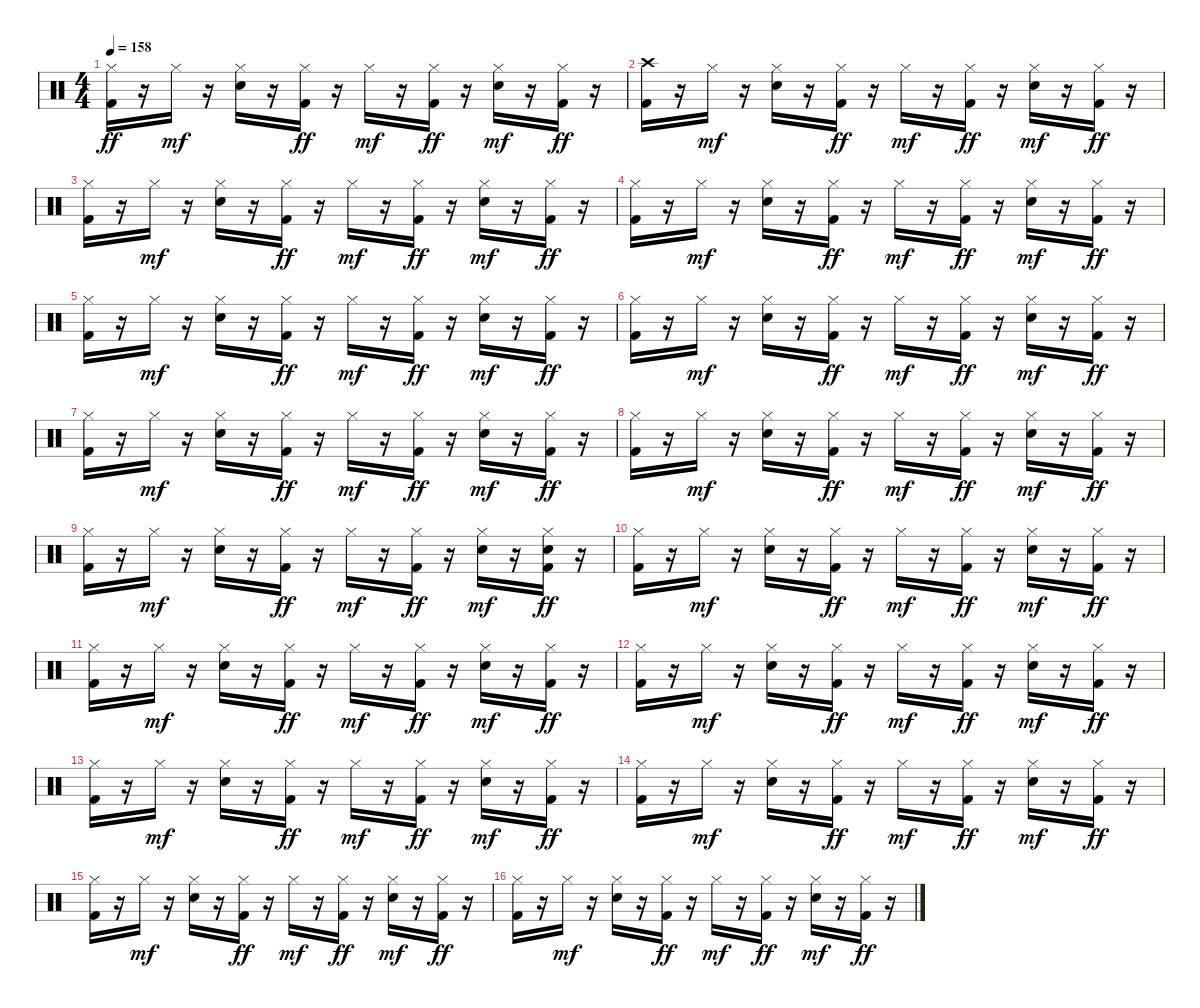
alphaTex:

\track ("   " "   ") {instrument percussion}
\staff
\articulation defaults
\ts (4 4)
\tempo 158
\clef neutral
\ks c
("Hi-Hat (closed)" "Kick (hit) 2").16{dy ff} r.16 "Hi-Hat (closed)".16{dy mf} r.16 ("Hi-Hat (closed)" "Electric Snare (hit)").16 r.16 ("Hi-Hat (closed)" "Kick (hit) 2").16{dy ff} r.16 "Hi-Hat (closed)".16{dy mf} r.16 ("Hi-Hat (closed)" "Kick (hit) 2").16{dy ff} r.16 ("Hi-Hat (closed)" "Electric Snare (hit)").16{dy mf} r.16 ("Hi-Hat (closed)" "Kick (hit) 2").16{dy ff} r.16 |
("Crash high (hit)" "Kick (hit) 2").16 r.16 "Hi-Hat (closed)".16{dy mf} r.16 ("Hi-Hat (closed)" "Electric Snare (hit)").16 r.16 ("Hi-Hat (closed)" "Kick (hit) 2").16{dy ff} r.16 "Hi-Hat (closed)".16{dy mf} r.16 ("Hi-Hat (closed)" "Kick (hit) 2").16{dy ff} r.16 ("Hi-Hat (closed)" "Electric Snare (hit)").16{dy mf} r.16 ("Hi-Hat (closed)" "Kick (hit) 2").16{dy ff} r.16 |
("Hi-Hat (closed)" "Kick (hit) 2").16 r.16 "Hi-Hat (closed)".16{dy mf} r.16 ("Hi-Hat (closed)" "Electric Snare (hit)").16 r.16 ("Hi-Hat (closed)" "Kick (hit) 2").16{dy ff} r.16 "Hi-Hat (closed)".16{dy mf} r.16 ("Hi-Hat (closed)" "Kick (hit) 2").16{dy ff} r.16 ("Hi-Hat (closed)" "Electric Snare (hit)").16{dy mf} r.16 ("Hi-Hat (closed)" "Kick (hit) 2").16{dy ff} r.16 |
("Hi-Hat (closed)" "Kick (hit) 2").16 r.16 "Hi-Hat (closed)".16{dy mf} r.16 ("Hi-Hat (closed)" "Electric Snare (hit)").16 r.16 ("Hi-Hat (closed)" "Kick (hit) 2").16{dy ff} r.16 "Hi-Hat (closed)".16{dy mf} r.16 ("Hi-Hat (closed)" "Kick (hit) 2").16{dy ff} r.16 ("Hi-Hat (closed)" "Electric Snare (hit)").16{dy mf} r.16 ("Hi-Hat (closed)" "Kick (hit) 2").16{dy ff} r.16 |
("Hi-Hat (closed)" "Kick (hit) 2").16 r.16 "Hi-Hat (closed)".16{dy mf} r.16 ("Hi-Hat (closed)" "Electric Snare (hit)").16 r.16 ("Hi-Hat (closed)" "Kick (hit) 2").16{dy ff} r.16 "Hi-Hat (closed)".16{dy mf} r.16 ("Hi-Hat (closed)" "Kick (hit) 2").16{dy ff} r.16 ("Hi-Hat (closed)" "Electric Snare (hit)").16{dy mf} r.16 ("Hi-Hat (closed)" "Kick (hit) 2").16{dy ff} r.16 |
("Hi-Hat (closed)" "Kick (hit) 2").16 r.16 "Hi-Hat (closed)".16{dy mf} r.16 ("Hi-Hat (closed)" "Electric Snare (hit)").16 r.16 ("Hi-Hat (closed)" "Kick (hit) 2").16{dy ff} r.16 "Hi-Hat (closed)".16{dy mf} r.16 ("Hi-Hat (closed)" "Kick (hit) 2").16{dy ff} r.16 ("Hi-Hat (closed)" "Electric Snare (hit)").16{dy mf} r.16 ("Hi-Hat (closed)" "Kick (hit) 2").16{dy ff} r.16 |
("Hi-Hat (closed)" "Kick (hit) 2").16 r.16 "Hi-Hat (closed)".16{dy mf} r.16 ("Hi-Hat (closed)" "Electric Snare (hit)").16 r.16 ("Hi-Hat (closed)" "Kick (hit) 2").16{dy ff} r.16 "Hi-Hat (closed)".16{dy mf} r.16 ("Hi-Hat (closed)" "Kick (hit) 2").16{dy ff} r.16 ("Hi-Hat (closed)" "Electric Snare (hit)").16{dy mf} r.16 ("Hi-Hat (closed)" "Kick (hit) 2").16{dy ff} r.16 |
("Hi-Hat (closed)" "Kick (hit) 2").16 r.16 "Hi-Hat (closed)".16{dy mf} r.16 ("Hi-Hat (closed)" "Electric Snare (hit)").16 r.16 ("Hi-Hat (closed)" "Kick (hit) 2").16{dy ff} r.16 "Hi-Hat (closed)".16{dy mf} r.16 ("Hi-Hat (closed)" "Kick (hit) 2").16{dy ff} r.16 ("Hi-Hat (closed)" "Electric Snare (hit)").16{dy mf} r.16 ("Hi-Hat (closed)" "Kick (hit) 2").16{dy ff} r.16 |
("Hi-Hat (closed)" "Kick (hit) 2").16 r.16 "Hi-Hat (closed)".16{dy mf} r.16 ("Hi-Hat (closed)" "Electric Snare (hit)").16 r.16 ("Hi-Hat (closed)" "Kick (hit) 2").16{dy ff} r.16 "Hi-Hat (closed)".16{dy mf} r.16 ("Hi-Hat (closed)" "Kick (hit) 2").16{dy ff} r.16 ("Hi-Hat (closed)" "Electric Snare (hit)").16{dy mf} r.16 ("Hi-Hat (closed)" "Electric Snare (hit)" "Kick (hit) 2").16{dy ff} r.16 |
("Hi-Hat (closed)" "Kick (hit) 2").16 r.16 "Hi-Hat (closed)".16{dy mf} r.16 ("Hi-Hat (closed)" "Electric Snare (hit)").16 r.16 ("Hi-Hat (closed)" "Kick (hit) 2").16{dy ff} r.16 "Hi-Hat (closed)".16{dy mf} r.16 ("Hi-Hat (closed)" "Kick (hit) 2").16{dy ff} r.16 ("Hi-Hat (closed)" "Electric Snare (hit)").16{dy mf} r.16 ("Hi-Hat (closed)" "Kick (hit) 2").16{dy ff} r.16 |
("Hi-Hat (closed)" "Kick (hit) 2").16 r.16 "Hi-Hat (closed)".16{dy mf} r.16 ("Hi-Hat (closed)" "Electric Snare (hit)").16 r.16 ("Hi-Hat (closed)" "Kick (hit) 2").16{dy ff} r.16 "Hi-Hat (closed)".16{dy mf} r.16 ("Hi-Hat (closed)" "Kick (hit) 2").16{dy ff} r.16 ("Hi-Hat (closed)" "Electric Snare (hit)").16{dy mf} r.16 ("Hi-Hat (closed)" "Kick (hit) 2").16{dy ff} r.16 |
("Hi-Hat (closed)" "Kick (hit) 2").16 r.16 "Hi-Hat (closed)".16{dy mf} r.16 ("Hi-Hat (closed)" "Electric Snare (hit)").16 r.16 ("Hi-Hat (closed)" "Kick (hit) 2").16{dy ff} r.16 "Hi-Hat (closed)".16{dy mf} r.16 ("Hi-Hat (closed)" "Kick (hit) 2").16{dy ff} r.16 ("Hi-Hat (closed)" "Electric Snare (hit)").16{dy mf} r.16 ("Hi-Hat (closed)" "Kick (hit) 2").16{dy ff} r.16 |
("Hi-Hat (closed)" "Kick (hit) 2").16 r.16 "Hi-Hat (closed)".16{dy mf} r.16 ("Hi-Hat (closed)" "Electric Snare (hit)").16 r.16 ("Hi-Hat (closed)" "Kick (hit) 2").16{dy ff} r.16 "Hi-Hat (closed)".16{dy mf} r.16 ("Hi-Hat (closed)" "Kick (hit) 2").16{dy ff} r.16 ("Hi-Hat (closed)" "Electric Snare (hit)").16{dy mf} r.16 ("Hi-Hat (closed)" "Kick (hit) 2").16{dy ff} r.16 |
("Hi-Hat (closed)" "Kick (hit) 2").16 r.16 "Hi-Hat (closed)".16{dy mf} r.16 ("Hi-Hat (closed)" "Electric Snare (hit)").16 r.16 ("Hi-Hat (closed)" "Kick (hit) 2").16{dy ff} r.16 "Hi-Hat (closed)".16{dy mf} r.16 ("Hi-Hat (closed)" "Kick (hit) 2").16{dy ff} r.16 ("Hi-Hat (closed)" "Electric Snare (hit)").16{dy mf} r.16 ("Hi-Hat (closed)" "Kick (hit) 2").16{dy ff} r.16 |
("Hi-Hat (closed)" "Kick (hit) 2").16 r.16 "Hi-Hat (closed)".16{dy mf} r.16 ("Hi-Hat (closed)" "Electric Snare (hit)").16 r.16 ("Hi-Hat (closed)" "Kick (hit) 2").16{dy ff} r.16 "Hi-Hat (closed)".16{dy mf} r.16 ("Hi-Hat (closed)" "Kick (hit) 2").16{dy ff} r.16 ("Hi-Hat (closed)" "Electric Snare (hit)").16{dy mf} r.16 ("Hi-Hat (closed)" "Kick (hit) 2").16{dy ff} r.16 |
("Hi-Hat (closed)" "Kick (hit) 2").16 r.16 "Hi-Hat (closed)".16{dy mf} r.16 ("Hi-Hat (closed)" "Electric Snare (hit)").16 r.16 ("Hi-Hat (closed)" "Kick (hit) 2").16{dy ff} r.16 "Hi-Hat (closed)".16{dy mf} r.16 ("Hi-Hat (closed)" "Kick (hit) 2").16{dy ff} r.16 ("Hi-Hat (closed)" "Electric Snare (hit)").16{dy mf} r.16 ("Hi-Hat (closed)" "Kick (hit) 2").16{dy ff} r.16
